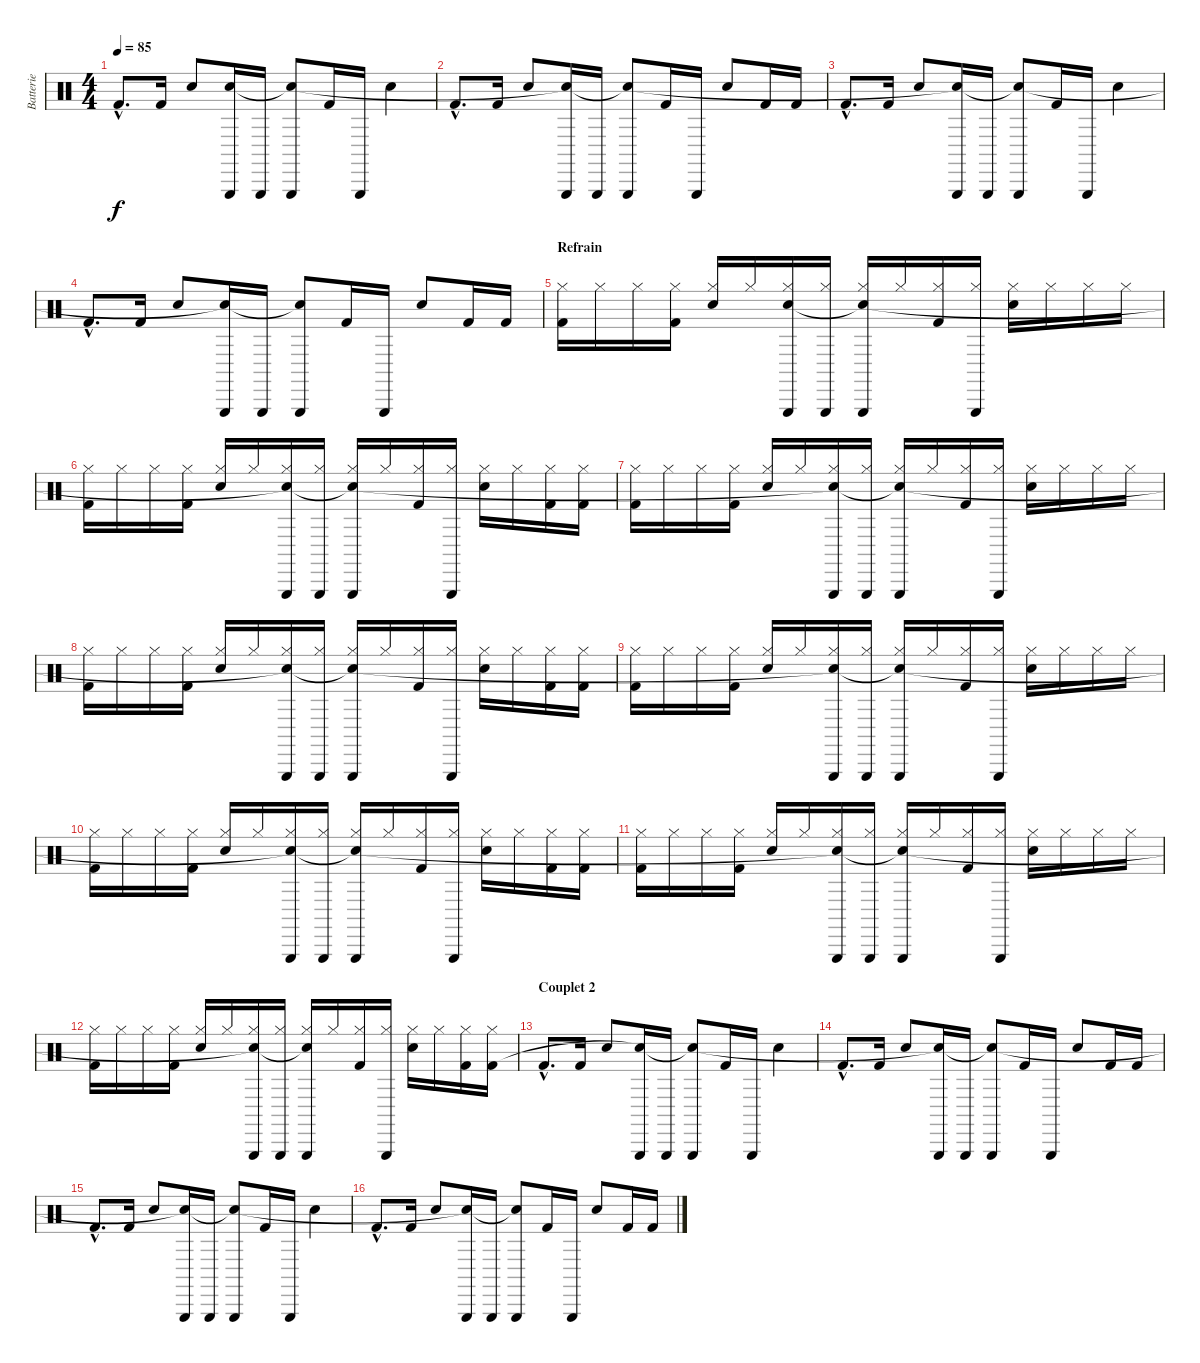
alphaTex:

\track ("Batterie" "Batterie") {instrument percussion}
\staff {score}
\articulation defaults
\ts (4 4)
\tempo 85
\clef neutral
\ks c "Kick (hit) 2"{hac}.8{d dy f} "Kick (hit) 2".16 "Hand Clap (hit)".8
("Triangle (hit)" "Snare (hit)"{t}).16 "Triangle (hit)".16 ("Triangle (hit)" "Snare (hit)"{t}).8 "Kick (hit) 2".16 "Triangle (hit)".16 "Hand Clap (hit)".4 |
"Kick (hit) 2"{hac}.8{d} "Kick (hit) 2".16 "Hand Clap (hit)".8 ("Triangle (hit)" "Snare (hit)"{t}).16 "Triangle (hit)".16 ("Triangle (hit)" "Snare (hit)"{t}).8 "Kick (hit) 2".16 "Triangle (hit)".16 "Hand Clap (hit)".8 "Kick (hit) 2".16 "Kick (hit) 2".16 |
"Kick (hit) 2"{hac}.8{d} "Kick (hit) 2".16 "Hand Clap (hit)".8 ("Triangle (hit)" "Snare (hit)"{t}).16 "Triangle (hit)".16 ("Triangle (hit)" "Snare (hit)"{t}).8 "Kick (hit) 2".16 "Triangle (hit)".16 "Hand Clap (hit)".4 |
"Kick (hit) 2"{hac}.8{d} "Kick (hit) 2".16 "Hand Clap (hit)".8 ("Triangle (hit)" "Snare (hit)"{t}).16 "Triangle (hit)".16 ("Triangle (hit)" "Snare (hit)"{t}).8 "Kick (hit) 2".16 "Triangle (hit)".16 "Hand Clap (hit)".8 "Kick (hit) 2".16 "Kick (hit) 2".16 |
\section ("" "Refrain")
("Hi-Hat (closed)" "Kick (hit) 2").16 "Hi-Hat (closed)".16 "Hi-Hat (closed)".16 ("Hi-Hat (closed)" "Kick (hit) 2").16 ("Hi-Hat (closed)" "Hand Clap (hit)").16 "Hi-Hat (closed)".16 ("Hi-Hat (closed)" "Triangle (hit)" "Snare (hit)").16 ("Hi-Hat (closed)" "Triangle (hit)").16 ("Hi-Hat (closed)" "Triangle (hit)" "Snare (hit)"{t}).16 "Hi-Hat (closed)".16 ("Hi-Hat (closed)" "Kick (hit) 2").16 ("Hi-Hat (closed)" "Triangle (hit)").16 ("Hi-Hat (closed)" "Hand Clap (hit)").16 "Hi-Hat (closed)".16 "Hi-Hat (closed)".16 "Hi-Hat (closed)".16 |
("Hi-Hat (closed)" "Kick (hit) 2").16 "Hi-Hat (closed)".16 "Hi-Hat (closed)".16 ("Hi-Hat (closed)" "Kick (hit) 2").16 ("Hi-Hat (closed)" "Hand Clap (hit)").16 "Hi-Hat (closed)".16 ("Hi-Hat (closed)" "Triangle (hit)" "Snare (hit)"{t}).16 ("Hi-Hat (closed)" "Triangle (hit)").16 ("Hi-Hat (closed)" "Triangle (hit)" "Snare (hit)"{t}).16 "Hi-Hat (closed)".16 ("Hi-Hat (closed)" "Kick (hit) 2").16 ("Hi-Hat (closed)" "Triangle (hit)").16 ("Hi-Hat (closed)" "Hand Clap (hit)").16 "Hi-Hat (closed)".16 ("Hi-Hat (closed)" "Kick (hit) 2").16 ("Hi-Hat (closed)" "Kick (hit) 2").16 |
("Hi-Hat (closed)" "Kick (hit) 2").16 "Hi-Hat (closed)".16 "Hi-Hat (closed)".16 ("Hi-Hat (closed)" "Kick (hit) 2").16 ("Hi-Hat (closed)" "Hand Clap (hit)").16 "Hi-Hat (closed)".16 ("Hi-Hat (closed)" "Triangle (hit)" "Snare (hit)"{t}).16 ("Hi-Hat (closed)" "Triangle (hit)").16 ("Hi-Hat (closed)" "Triangle (hit)" "Snare (hit)"{t}).16 "Hi-Hat (closed)".16 ("Hi-Hat (closed)" "Kick (hit) 2").16 ("Hi-Hat (closed)" "Triangle (hit)").16 ("Hi-Hat (closed)" "Hand Clap (hit)").16 "Hi-Hat (closed)".16 "Hi-Hat (closed)".16 "Hi-Hat (closed)".16 |
("Hi-Hat (closed)" "Kick (hit) 2").16 "Hi-Hat (closed)".16 "Hi-Hat (closed)".16 ("Hi-Hat (closed)" "Kick (hit) 2").16 ("Hi-Hat (closed)" "Hand Clap (hit)").16 "Hi-Hat (closed)".16 ("Hi-Hat (closed)" "Triangle (hit)" "Snare (hit)"{t}).16 ("Hi-Hat (closed)" "Triangle (hit)").16 ("Hi-Hat (closed)" "Triangle (hit)" "Snare (hit)"{t}).16 "Hi-Hat (closed)".16 ("Hi-Hat (closed)" "Kick (hit) 2").16 ("Hi-Hat (closed)" "Triangle (hit)").16 ("Hi-Hat (closed)" "Hand Clap (hit)").16 "Hi-Hat (closed)".16 ("Hi-Hat (closed)" "Kick (hit) 2").16 ("Hi-Hat (closed)" "Kick (hit) 2").16 |
("Hi-Hat (closed)" "Kick (hit) 2").16 "Hi-Hat (closed)".16 "Hi-Hat (closed)".16 ("Hi-Hat (closed)" "Kick (hit) 2").16 ("Hi-Hat (closed)" "Hand Clap (hit)").16 "Hi-Hat (closed)".16 ("Hi-Hat (closed)" "Triangle (hit)" "Snare (hit)"{t}).16 ("Hi-Hat (closed)" "Triangle (hit)").16 ("Hi-Hat (closed)" "Triangle (hit)" "Snare (hit)"{t}).16 "Hi-Hat (closed)".16 ("Hi-Hat (closed)" "Kick (hit) 2").16 ("Hi-Hat (closed)" "Triangle (hit)").16 ("Hi-Hat (closed)" "Hand Clap (hit)").16 "Hi-Hat (closed)".16 "Hi-Hat (closed)".16 "Hi-Hat (closed)".16 |
("Hi-Hat (closed)" "Kick (hit) 2").16 "Hi-Hat (closed)".16 "Hi-Hat (closed)".16 ("Hi-Hat (closed)" "Kick (hit) 2").16 ("Hi-Hat (closed)" "Hand Clap (hit)").16 "Hi-Hat (closed)".16 ("Hi-Hat (closed)" "Triangle (hit)" "Snare (hit)"{t}).16 ("Hi-Hat (closed)" "Triangle (hit)").16 ("Hi-Hat (closed)" "Triangle (hit)" "Snare (hit)"{t}).16 "Hi-Hat (closed)".16 ("Hi-Hat (closed)" "Kick (hit) 2").16 ("Hi-Hat (closed)" "Triangle (hit)").16 ("Hi-Hat (closed)" "Hand Clap (hit)").16 "Hi-Hat (closed)".16 ("Hi-Hat (closed)" "Kick (hit) 2").16 ("Hi-Hat (closed)" "Kick (hit) 2").16 |
("Hi-Hat (closed)" "Kick (hit) 2").16 "Hi-Hat (closed)".16 "Hi-Hat (closed)".16 ("Hi-Hat (closed)" "Kick (hit) 2").16 ("Hi-Hat (closed)" "Hand Clap (hit)").16 "Hi-Hat (closed)".16 ("Hi-Hat (closed)" "Triangle (hit)" "Snare (hit)"{t}).16 ("Hi-Hat (closed)" "Triangle (hit)").16 ("Hi-Hat (closed)" "Triangle (hit)" "Snare (hit)"{t}).16 "Hi-Hat (closed)".16 ("Hi-Hat (closed)" "Kick (hit) 2").16 ("Hi-Hat (closed)" "Triangle (hit)").16 ("Hi-Hat (closed)" "Hand Clap (hit)").16 "Hi-Hat (closed)".16 "Hi-Hat (closed)".16 "Hi-Hat (closed)".16 |
("Hi-Hat (closed)" "Kick (hit) 2").16 "Hi-Hat (closed)".16 "Hi-Hat (closed)".16 ("Hi-Hat (closed)" "Kick (hit) 2").16 ("Hi-Hat (closed)" "Hand Clap (hit)").16 "Hi-Hat (closed)".16 ("Hi-Hat (closed)" "Triangle (hit)" "Snare (hit)"{t}).16 ("Hi-Hat (closed)" "Triangle (hit)").16 ("Hi-Hat (closed)" "Triangle (hit)" "Snare (hit)"{t}).16 "Hi-Hat (closed)".16 ("Hi-Hat (closed)" "Kick (hit) 2").16 ("Hi-Hat (closed)" "Triangle (hit)").16 ("Hi-Hat (closed)" "Hand Clap (hit)").16 "Hi-Hat (closed)".16 ("Hi-Hat (closed)" "Kick (hit) 2").16 ("Hi-Hat (closed)" "Kick (hit) 2").16 |
\section ("" "Couplet 2")
"Kick (hit) 2"{hac}.8{d} "Kick (hit) 2".16 "Hand Clap (hit)".8 ("Triangle (hit)" "Snare (hit)"{t}).16 "Triangle (hit)".16 ("Triangle (hit)" "Snare (hit)"{t}).8 "Kick (hit) 2".16 "Triangle (hit)".16 "Hand Clap (hit)".4 |
"Kick (hit) 2"{hac}.8{d} "Kick (hit) 2".16 "Hand Clap (hit)".8 ("Triangle (hit)" "Snare (hit)"{t}).16 "Triangle (hit)".16 ("Triangle (hit)" "Snare (hit)"{t}).8 "Kick (hit) 2".16 "Triangle (hit)".16 "Hand Clap (hit)".8 "Kick (hit) 2".16 "Kick (hit) 2".16 |
"Kick (hit) 2"{hac}.8{d} "Kick (hit) 2".16 "Hand Clap (hit)".8 ("Triangle (hit)" "Snare (hit)"{t}).16 "Triangle (hit)".16 ("Triangle (hit)" "Snare (hit)"{t}).8 "Kick (hit) 2".16 "Triangle (hit)".16 "Hand Clap (hit)".4 |
"Kick (hit) 2"{hac}.8{d} "Kick (hit) 2".16 "Hand Clap (hit)".8 ("Triangle (hit)" "Snare (hit)"{t}).16 "Triangle (hit)".16 ("Triangle (hit)" "Snare (hit)"{t}).8 "Kick (hit) 2".16 "Triangle (hit)".16 "Hand Clap (hit)".8 "Kick (hit) 2".16 "Kick (hit) 2".16
